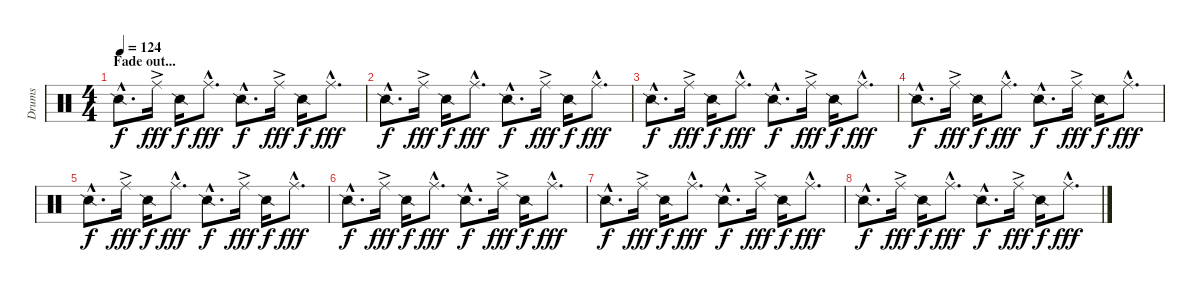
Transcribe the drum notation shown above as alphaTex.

\track ("Drums" "Drums") {instrument percussion}
\staff {score}
\articulation defaults
\ts (4 4)
\section ("" "Fade out...")
\tempo 124
\clef neutral
\ks c "Snare (side stick) 2"{hac}.8{d dy f volume 0} "Ride (middle)"{ac}.16{dy fff} "Snare (side stick) 2".16{dy f} "Ride (middle)"{hac}.8{d dy fff} "Snare (side stick) 2"{hac}.8{d dy f} "Ride (middle)"{ac}.16{dy fff} "Snare (side stick) 2".16{dy f} "Ride (middle)"{hac}.8{d dy fff}
|
"Snare (side stick) 2"{hac}.8{d dy f} "Ride (middle)"{ac}.16{dy fff} "Snare (side stick) 2".16{dy f} "Ride (middle)"{hac}.8{d dy fff} "Snare (side stick) 2"{hac}.8{d dy f} "Ride (middle)"{ac}.16{dy fff} "Snare (side stick) 2".16{dy f} "Ride (middle)"{hac}.8{d dy fff} |
"Snare (side stick) 2"{hac}.8{d dy f} "Ride (middle)"{ac}.16{dy fff} "Snare (side stick) 2".16{dy f} "Ride (middle)"{hac}.8{d dy fff} "Snare (side stick) 2"{hac}.8{d dy f} "Ride (middle)"{ac}.16{dy fff} "Snare (side stick) 2".16{dy f} "Ride (middle)"{hac}.8{d dy fff} |
"Snare (side stick) 2"{hac}.8{d dy f} "Ride (middle)"{ac}.16{dy fff} "Snare (side stick) 2".16{dy f} "Ride (middle)"{hac}.8{d dy fff} "Snare (side stick) 2"{hac}.8{d dy f} "Ride (middle)"{ac}.16{dy fff} "Snare (side stick) 2".16{dy f} "Ride (middle)"{hac}.8{d dy fff} |
"Snare (side stick) 2"{hac}.8{d dy f} "Ride (middle)"{ac}.16{dy fff} "Snare (side stick) 2".16{dy f} "Ride (middle)"{hac}.8{d dy fff} "Snare (side stick) 2"{hac}.8{d dy f} "Ride (middle)"{ac}.16{dy fff} "Snare (side stick) 2".16{dy f} "Ride (middle)"{hac}.8{d dy fff} |
"Snare (side stick) 2"{hac}.8{d dy f} "Ride (middle)"{ac}.16{dy fff} "Snare (side stick) 2".16{dy f} "Ride (middle)"{hac}.8{d dy fff} "Snare (side stick) 2"{hac}.8{d dy f} "Ride (middle)"{ac}.16{dy fff} "Snare (side stick) 2".16{dy f} "Ride (middle)"{hac}.8{d dy fff} |
"Snare (side stick) 2"{hac}.8{d dy f} "Ride (middle)"{ac}.16{dy fff} "Snare (side stick) 2".16{dy f} "Ride (middle)"{hac}.8{d dy fff} "Snare (side stick) 2"{hac}.8{d dy f} "Ride (middle)"{ac}.16{dy fff} "Snare (side stick) 2".16{dy f} "Ride (middle)"{hac}.8{d dy fff} |
"Snare (side stick) 2"{hac}.8{d dy f} "Ride (middle)"{ac}.16{dy fff} "Snare (side stick) 2".16{dy f} "Ride (middle)"{hac}.8{d dy fff} "Snare (side stick) 2"{hac}.8{d dy f} "Ride (middle)"{ac}.16{dy fff} "Snare (side stick) 2".16{dy f} "Ride (middle)"{hac}.8{d dy fff}
